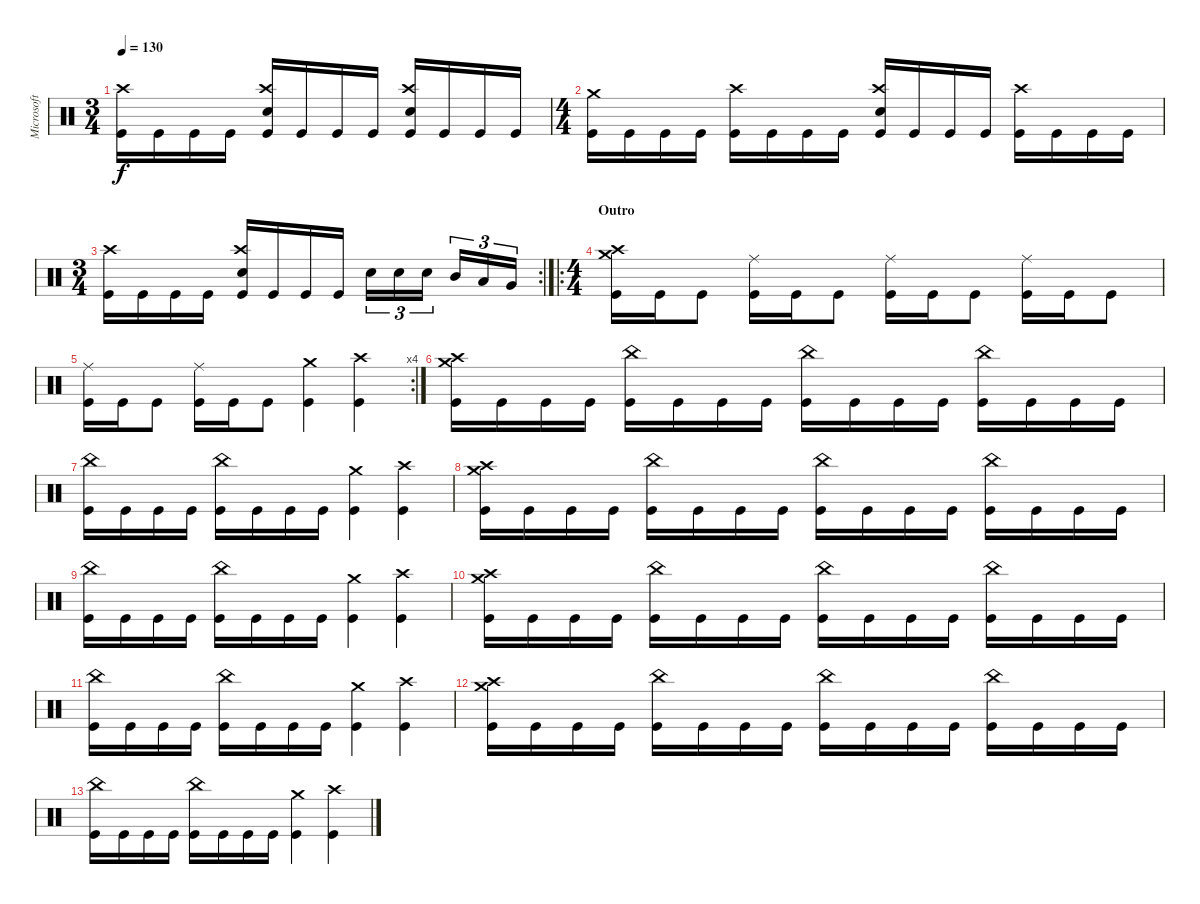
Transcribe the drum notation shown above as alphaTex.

\track ("Microsoft S.A.M." "Microsoft ") {instrument percussion}
\staff {score}
\articulation defaults
\ts (3 4)
\tempo 130
\clef neutral
\ks c
("Kick (hit)" "Crash high (hit)").16{dy f} "Kick (hit)".16 "Kick (hit)".16 "Kick (hit)".16 ("Kick (hit)" "Crash high (hit)" "Snare (hit) 2").16 "Kick (hit)".16 "Kick (hit)".16 "Kick (hit)".16 ("Kick (hit)" "Snare (hit) 2" "Crash high (hit)").16 "Kick (hit)".16 "Kick (hit)".16 "Kick (hit)".16 |
\ts (4 4)
("Kick (hit)" "Crash medium (hit)").16 "Kick (hit)".16 "Kick (hit)".16 "Kick (hit)".16 ("Kick (hit)" "Crash high (hit)").16 "Kick (hit)".16 "Kick (hit)".16 "Kick (hit)".16 ("Kick (hit)" "Snare (hit) 2" "Crash high (hit)").16 "Kick (hit)".16 "Kick (hit)".16 "Kick (hit)".16 ("Kick (hit)" "Crash high (hit)").16 "Kick (hit)".16 "Kick (hit)".16 "Kick (hit)".16 |
\rc 2
\ts (3 4)
("Kick (hit)" "Crash high (hit)").16 "Kick (hit)".16 "Kick (hit)".16 "Kick (hit)".16 ("Kick (hit)" "Crash high (hit)" "Snare (hit) 2").16 "Kick (hit)".16 "Kick (hit)".16 "Kick (hit)".16 "Snare (hit) 2".16{tu (3 2)} "Snare (hit) 2".16{tu (3 2)} "Snare (hit) 2".16{tu (3 2)} "Mid Tom (hit)".16{tu (3 2)} "Low Tom (hit)".16{tu (3 2)} "Very Low Tom (hit)".16{tu (3 2)} |
\ro
\ts (4 4)
\section ("" "Outro")
("Kick (hit)" "Crash medium (hit)" "Crash high (hit)").16 "Kick (hit)".16 "Kick (hit)".8 ("Kick (hit)" "Ride (middle)").16 "Kick (hit)".16 "Kick (hit)".8 ("Kick (hit)" "Ride (middle)").16 "Kick (hit)".16 "Kick (hit)".8 ("Kick (hit)" "Ride (middle)").16 "Kick (hit)".16 "Kick (hit)".8 |
\rc 4
("Kick (hit)" "Ride (middle)").16 "Kick (hit)".16 "Kick (hit)".8 ("Kick (hit)" "Ride (middle)").16 "Kick (hit)".16 "Kick (hit)".8 ("Kick (hit)" "Crash medium (hit)").4 ("Kick (hit)" "Crash high (hit)").4 |
("Kick (hit)" "Crash medium (hit)" "Crash high (hit)").16 "Kick (hit)".16 "Kick (hit)".16 "Kick (hit)".16 ("Kick (hit)" "China (hit)").16 "Kick (hit)".16 "Kick (hit)".16 "Kick (hit)".16 ("Kick (hit)" "China (hit)").16 "Kick (hit)".16 "Kick (hit)".16 "Kick (hit)".16 ("Kick (hit)" "China (hit)").16 "Kick (hit)".16 "Kick (hit)".16 "Kick (hit)".16 |
("Kick (hit)" "China (hit)").16 "Kick (hit)".16 "Kick (hit)".16 "Kick (hit)".16 ("Kick (hit)" "China (hit)").16 "Kick (hit)".16 "Kick (hit)".16 "Kick (hit)".16 ("Kick (hit)" "Crash medium (hit)").4 ("Kick (hit)" "Crash high (hit)").4 |
("Kick (hit)" "Crash medium (hit)" "Crash high (hit)").16 "Kick (hit)".16 "Kick (hit)".16 "Kick (hit)".16 ("Kick (hit)" "China (hit)").16 "Kick (hit)".16 "Kick (hit)".16 "Kick (hit)".16 ("Kick (hit)" "China (hit)").16 "Kick (hit)".16 "Kick (hit)".16 "Kick (hit)".16 ("Kick (hit)" "China (hit)").16 "Kick (hit)".16 "Kick (hit)".16 "Kick (hit)".16 |
("Kick (hit)" "China (hit)").16 "Kick (hit)".16 "Kick (hit)".16 "Kick (hit)".16 ("Kick (hit)" "China (hit)").16 "Kick (hit)".16 "Kick (hit)".16 "Kick (hit)".16 ("Kick (hit)" "Crash medium (hit)").4 ("Kick (hit)" "Crash high (hit)").4 |
("Kick (hit)" "Crash medium (hit)" "Crash high (hit)").16 "Kick (hit)".16 "Kick (hit)".16 "Kick (hit)".16 ("Kick (hit)" "China (hit)").16 "Kick (hit)".16 "Kick (hit)".16 "Kick (hit)".16 ("Kick (hit)" "China (hit)").16 "Kick (hit)".16 "Kick (hit)".16 "Kick (hit)".16 ("Kick (hit)" "China (hit)").16 "Kick (hit)".16 "Kick (hit)".16 "Kick (hit)".16 |
("Kick (hit)" "China (hit)").16 "Kick (hit)".16 "Kick (hit)".16 "Kick (hit)".16 ("Kick (hit)" "China (hit)").16 "Kick (hit)".16 "Kick (hit)".16 "Kick (hit)".16 ("Kick (hit)" "Crash medium (hit)").4 ("Kick (hit)" "Crash high (hit)").4 |
("Kick (hit)" "Crash medium (hit)" "Crash high (hit)").16 "Kick (hit)".16 "Kick (hit)".16 "Kick (hit)".16 ("Kick (hit)" "China (hit)").16 "Kick (hit)".16 "Kick (hit)".16 "Kick (hit)".16 ("Kick (hit)" "China (hit)").16 "Kick (hit)".16 "Kick (hit)".16 "Kick (hit)".16 ("Kick (hit)" "China (hit)").16 "Kick (hit)".16 "Kick (hit)".16 "Kick (hit)".16 |
("Kick (hit)" "China (hit)").16 "Kick (hit)".16 "Kick (hit)".16 "Kick (hit)".16 ("Kick (hit)" "China (hit)").16 "Kick (hit)".16 "Kick (hit)".16 "Kick (hit)".16 ("Kick (hit)" "Crash medium (hit)").4 ("Kick (hit)" "Crash high (hit)").4
